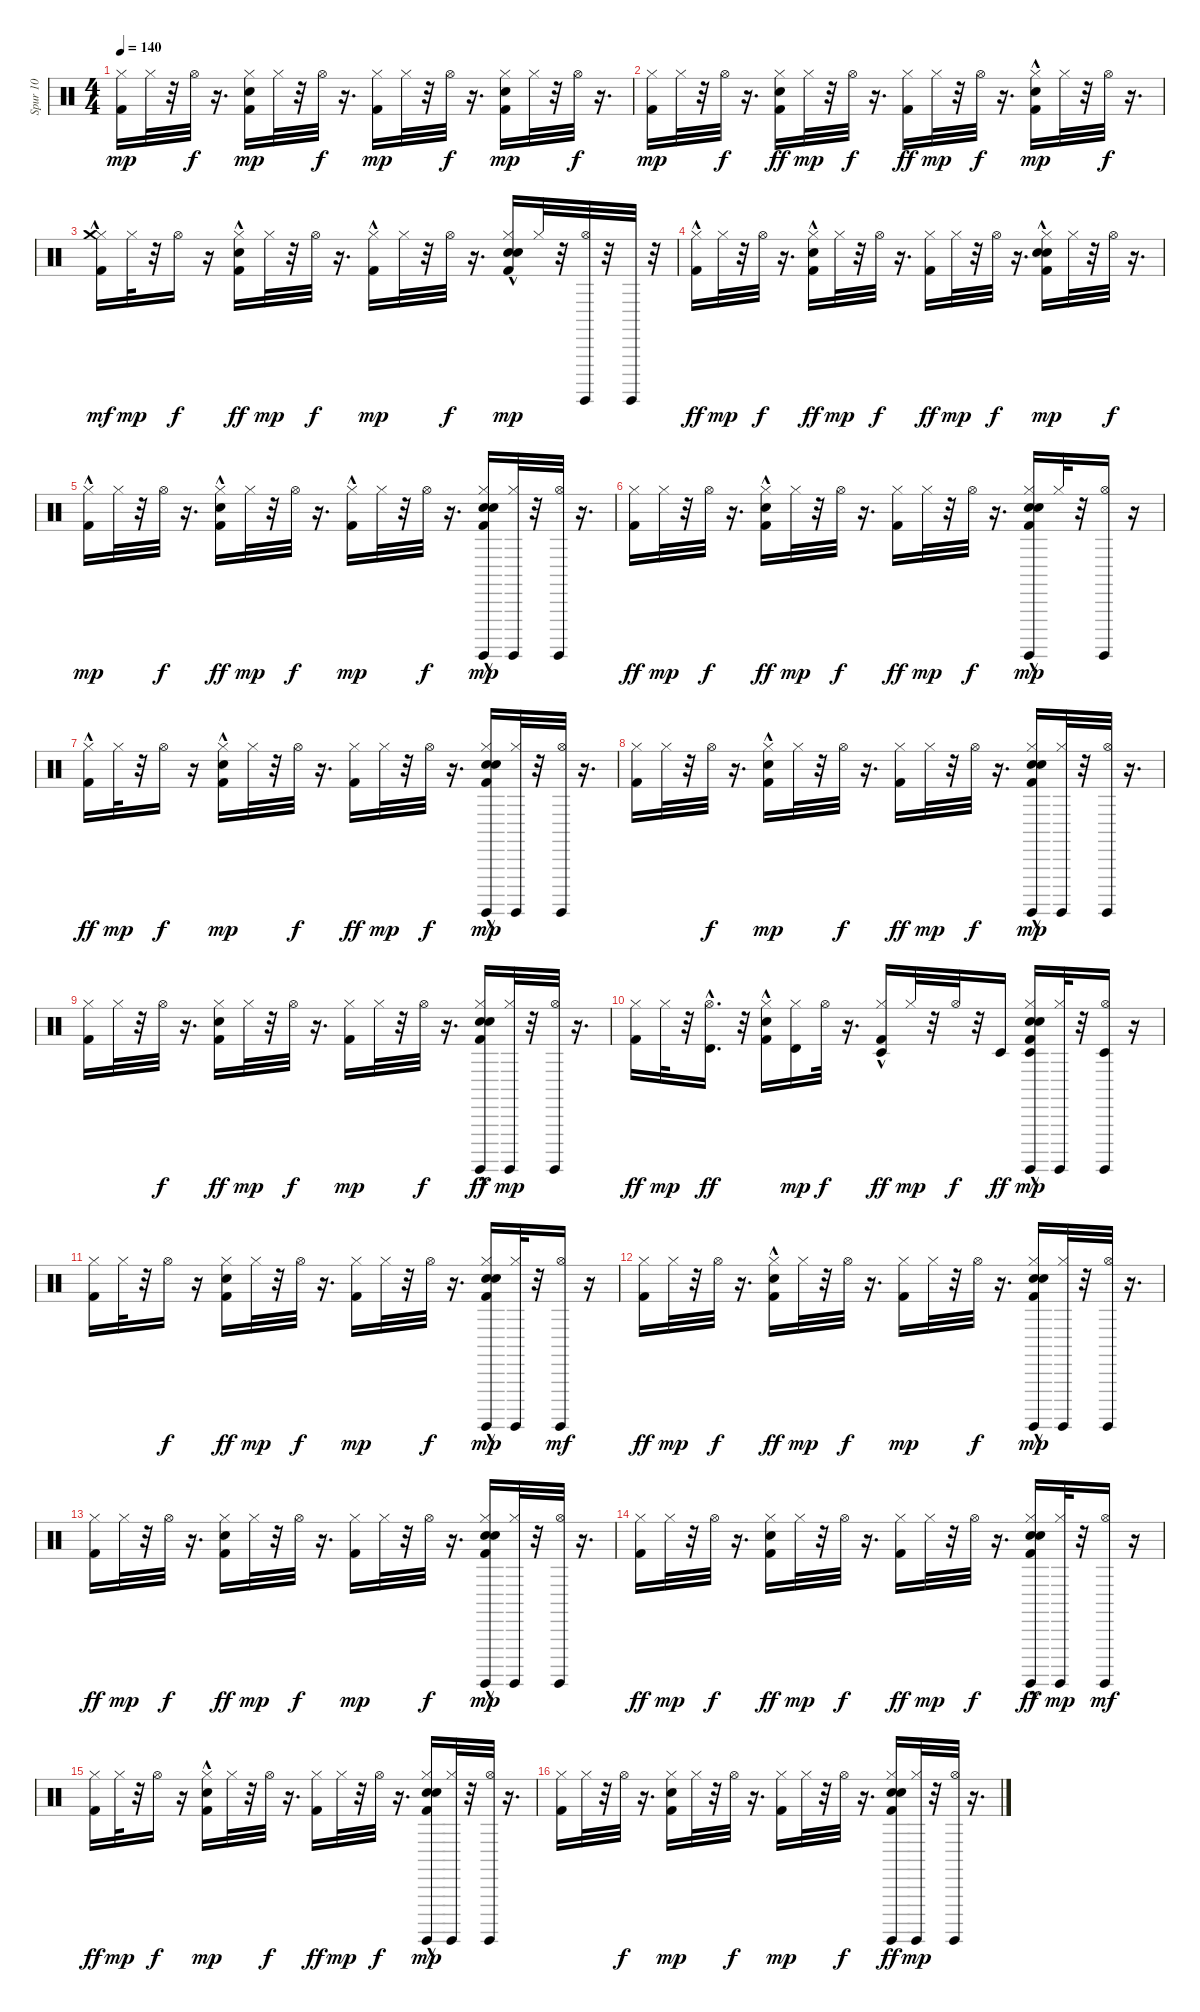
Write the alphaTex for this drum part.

\track ("Spur 10" "Spur 10") {instrument percussion}
\staff {score}
\articulation defaults
\ts (4 4)
\tempo 140
\clef neutral
\ks c
("Kick (hit) 2" "Hi-Hat (closed)").16{dy mp} "Hi-Hat (closed)".32 r.32 "Hi-Hat (open)".32{dy f} r.16{d} ("Kick (hit) 2" "Hi-Hat (closed)" "Electric Snare (hit)").16{dy mp} "Hi-Hat (closed)".32 r.32 "Hi-Hat (open)".32{dy f} r.16{d} ("Kick (hit) 2" "Hi-Hat (closed)").16{dy mp} "Hi-Hat (closed)".32 r.32 "Hi-Hat (open)".32{dy f} r.16{d} ("Kick (hit) 2" "Hi-Hat (closed)" "Electric Snare (hit)").16{dy mp} "Hi-Hat (closed)".32 r.32 "Hi-Hat (open)".32{dy f} r.16{d} |
("Kick (hit) 2" "Hi-Hat (closed)").16{dy mp} "Hi-Hat (closed)".32 r.32 "Hi-Hat (open)".32{dy f} r.16{d} ("Hi-Hat (closed)" "Electric Snare (hit)" "Kick (hit) 2").16{dy ff} "Hi-Hat (closed)".32{dy mp} r.32 "Hi-Hat (open)".32{dy f} r.16{d} ("Hi-Hat (closed)" "Kick (hit) 2").16{dy ff} "Hi-Hat (closed)".32{dy mp} r.32 "Hi-Hat (open)".32{dy f} r.16{d} ("Electric Snare (hit)"{hac} "Kick (hit) 2" "Hi-Hat (closed)").16{dy mp} "Hi-Hat (closed)".32 r.32 "Hi-Hat (open)".32{dy f} r.16{d} |
("Kick (hit) 2"{hac} "Hi-Hat (closed)" "Crash medium (hit)").16{dy mf} "Hi-Hat (closed)".32{dy mp} r.32 "Hi-Hat (open)".16{dy f} r.16 ("Electric Snare (hit)"{hac} "Hi-Hat (closed)" "Kick (hit) 2"{hac}).16{dy ff} "Hi-Hat (closed)".32{dy mp} r.32 "Hi-Hat (open)".32{dy f} r.16{d} ("Kick (hit) 2"{hac} "Hi-Hat (closed)").16{dy mp} "Hi-Hat (closed)".32 r.32 "Hi-Hat (open)".32{dy f} r.16{d} ("Kick (hit) 2"{hac} "Hi-Hat (closed)" "Electric Snare (hit)" "Snare (hit) 2").16{dy mp} "Hi-Hat (closed)".32 r.32 ("Surdo (hit)" "Hi-Hat (open)").32 r.32 "Surdo (hit)".32 r.32 |
("Hi-Hat (closed)" "Kick (hit) 2"{hac}).16{dy ff} "Hi-Hat (closed)".32{dy mp} r.32 "Hi-Hat (open)".32{dy f} r.16{d} ("Electric Snare (hit)"{hac} "Hi-Hat (closed)" "Kick (hit) 2"{hac}).16{dy ff} "Hi-Hat (closed)".32{dy mp} r.32 "Hi-Hat (open)".32{dy f} r.16{d} ("Hi-Hat (closed)" "Kick (hit) 2").16{dy ff} "Hi-Hat (closed)".32{dy mp} r.32 "Hi-Hat (open)".32{dy f} r.16{d} ("Electric Snare (hit)"{hac} "Kick (hit) 2"{hac} "Hi-Hat (closed)" "Snare (hit) 2").16{dy mp} "Hi-Hat (closed)".32 r.32 "Hi-Hat (open)".32{dy f} r.16{d} |
("Kick (hit) 2"{hac} "Hi-Hat (closed)").16{dy mp} "Hi-Hat (closed)".32 r.32 "Hi-Hat (open)".32{dy f} r.16{d} ("Hi-Hat (closed)" "Kick (hit) 2"{hac} "Electric Snare (hit)").16{dy ff} "Hi-Hat (closed)".32{dy mp} r.32 "Hi-Hat (open)".32{dy f} r.16{d} ("Kick (hit) 2"{hac} "Hi-Hat (closed)").16{dy mp} "Hi-Hat (closed)".32 r.32 "Hi-Hat (open)".32{dy f} r.16{d} ("Snare (hit) 2" "Surdo (hit)" "Kick (hit) 2" "Hi-Hat (closed)" "Electric Snare (hit)"{hac}).16{dy mp} ("Hi-Hat (closed)" "Surdo (hit)").32 r.32 ("Surdo (hit)" "Hi-Hat (open)").32 r.16{d} |
("Hi-Hat (closed)" "Kick (hit) 2").16{dy ff} "Hi-Hat (closed)".32{dy mp} r.32 "Hi-Hat (open)".32{dy f} r.16{d} ("Hi-Hat (closed)" "Kick (hit) 2" "Electric Snare (hit)"{hac}).16{dy ff} "Hi-Hat (closed)".32{dy mp} r.32 "Hi-Hat (open)".32{dy f} r.16{d} ("Hi-Hat (closed)" "Kick (hit) 2").16{dy ff} "Hi-Hat (closed)".32{dy mp} r.32 "Hi-Hat (open)".32{dy f} r.16{d} ("Hi-Hat (closed)" "Kick (hit) 2"{hac} "Surdo (hit)"{hac} "Electric Snare (hit)"{hac} "Snare (hit) 2").16{dy mp} "Hi-Hat (closed)".32 r.32 ("Hi-Hat (open)" "Surdo (hit)").16 r.16 |
("Hi-Hat (closed)" "Kick (hit) 2"{hac}).16{dy ff} "Hi-Hat (closed)".32{dy mp} r.32 "Hi-Hat (open)".16{dy f} r.16 ("Kick (hit) 2"{hac} "Hi-Hat (closed)" "Electric Snare (hit)"{hac}).16{dy mp} "Hi-Hat (closed)".32 r.32 "Hi-Hat (open)".32{dy f} r.16{d} ("Hi-Hat (closed)" "Kick (hit) 2").16{dy ff} "Hi-Hat (closed)".32{dy mp} r.32 "Hi-Hat (open)".32{dy f} r.16{d} ("Kick (hit) 2"{hac} "Hi-Hat (closed)" "Electric Snare (hit)"{hac} "Snare (hit) 2" "Surdo (hit)").16{dy mp} ("Surdo (hit)" "Hi-Hat (closed)").32 r.32 ("Hi-Hat (open)" "Surdo (hit)").32 r.16{d} |
("Kick (hit) 2" "Hi-Hat (closed)").16 "Hi-Hat (closed)".32 r.32 "Hi-Hat (open)".32{dy f} r.16{d} ("Kick (hit) 2" "Hi-Hat (closed)" "Electric Snare (hit)"{hac}).16{dy mp} "Hi-Hat (closed)".32 r.32 "Hi-Hat (open)".32{dy f} r.16{d} ("Hi-Hat (closed)" "Kick (hit) 2").16{dy ff} "Hi-Hat (closed)".32{dy mp} r.32 "Hi-Hat (open)".32{dy f} r.16{d} ("Hi-Hat (closed)" "Snare (hit) 2" "Kick (hit) 2" "Electric Snare (hit)"{hac} "Surdo (hit)").16{dy mp} ("Hi-Hat (closed)" "Surdo (hit)").32 r.32 ("Surdo (hit)" "Hi-Hat (open)").32 r.16{d} |
("Kick (hit) 2" "Hi-Hat (closed)").16 "Hi-Hat (closed)".32 r.32 "Hi-Hat (open)".32{dy f} r.16{d} ("Hi-Hat (closed)" "Electric Snare (hit)" "Kick (hit) 2").16{dy ff} "Hi-Hat (closed)".32{dy mp} r.32 "Hi-Hat (open)".32{dy f} r.16{d} ("Kick (hit) 2" "Hi-Hat (closed)").16{dy mp} "Hi-Hat (closed)".32 r.32 "Hi-Hat (open)".32{dy f} r.16{d} ("Surdo (hit)" "Hi-Hat (closed)" "Snare (hit) 2" "Electric Snare (hit)"{hac} "Kick (hit) 2").16{dy ff} ("Hi-Hat (closed)" "Surdo (hit)").32{dy mp} r.32 ("Hi-Hat (open)" "Surdo (hit)").32 r.16{d} |
("Hi-Hat (closed)" "Kick (hit) 2").16{dy ff} "Hi-Hat (closed)".32{dy mp} r.32 ("Hi-Hat (open)" "Timbale high (hit)"{hac}).16{d dy ff} r.32 ("Hi-Hat (closed)" "Kick (hit) 2" "Electric Snare (hit)"{hac}).16 ("Hi-Hat (closed)" "Timbale high (hit)").16{dy mp} "Hi-Hat (open)".32{dy f} r.16{d} ("Timbale low (hit)"{hac} "Hi-Hat (closed)" "Kick (hit) 2").16{dy ff} "Hi-Hat (closed)".32{dy mp} r.32 "Hi-Hat (open)".32{dy f} r.32 "Timbale low (hit)".16{dy ff} ("Hi-Hat (closed)" "Electric Snare (hit)"{hac} "Timbale low (hit)" "Kick (hit) 2" "Surdo (hit)" "Snare (hit) 2").16{dy mp} ("Hi-Hat (closed)" "Surdo (hit)").32 r.32 ("Timbale low (hit)" "Hi-Hat (open)" "Surdo (hit)").16 r.16 |
("Kick (hit) 2" "Hi-Hat (closed)").16 "Hi-Hat (closed)".32 r.32 "Hi-Hat (open)".16{dy f} r.16 ("Hi-Hat (closed)" "Kick (hit) 2" "Electric Snare (hit)").16{dy ff} "Hi-Hat (closed)".32{dy mp} r.32 "Hi-Hat (open)".32{dy f} r.16{d} ("Kick (hit) 2" "Hi-Hat (closed)").16{dy mp} "Hi-Hat (closed)".32 r.32 "Hi-Hat (open)".32{dy f} r.16{d} ("Hi-Hat (closed)" "Kick (hit) 2" "Surdo (hit)" "Snare (hit) 2" "Electric Snare (hit)"{hac}).16{dy mp} ("Hi-Hat (closed)" "Surdo (hit)").32 r.32 ("Hi-Hat (open)" "Surdo (hit)").16{dy mf} r.16 |
("Hi-Hat (closed)" "Kick (hit) 2").16{dy ff} "Hi-Hat (closed)".32{dy mp} r.32 "Hi-Hat (open)".32{dy f} r.16{d} ("Hi-Hat (closed)" "Electric Snare (hit)"{hac} "Kick (hit) 2").16{dy ff} "Hi-Hat (closed)".32{dy mp} r.32 "Hi-Hat (open)".32{dy f} r.16{d} ("Kick (hit) 2" "Hi-Hat (closed)").16{dy mp} "Hi-Hat (closed)".32 r.32 "Hi-Hat (open)".32{dy f} r.16{d} ("Surdo (hit)" "Snare (hit) 2"{hac} "Kick (hit) 2" "Hi-Hat (closed)" "Electric Snare (hit)"{hac}).16{dy mp} ("Hi-Hat (closed)" "Surdo (hit)").32 r.32 ("Surdo (hit)" "Hi-Hat (open)").32 r.16{d} |
("Hi-Hat (closed)" "Kick (hit) 2").16{dy ff} "Hi-Hat (closed)".32{dy mp} r.32 "Hi-Hat (open)".32{dy f} r.16{d} ("Electric Snare (hit)" "Hi-Hat (closed)" "Kick (hit) 2").16{dy ff} "Hi-Hat (closed)".32{dy mp} r.32 "Hi-Hat (open)".32{dy f} r.16{d} ("Kick (hit) 2" "Hi-Hat (closed)").16{dy mp} "Hi-Hat (closed)".32 r.32 "Hi-Hat (open)".32{dy f} r.16{d} ("Surdo (hit)" "Electric Snare (hit)"{hac} "Kick (hit) 2" "Hi-Hat (closed)" "Snare (hit) 2"{hac}).16{dy mp} ("Surdo (hit)" "Hi-Hat (closed)").32 r.32 ("Surdo (hit)" "Hi-Hat (open)").32 r.16{d} |
("Hi-Hat (closed)" "Kick (hit) 2").16{dy ff} "Hi-Hat (closed)".32{dy mp} r.32 "Hi-Hat (open)".32{dy f} r.16{d} ("Electric Snare (hit)" "Hi-Hat (closed)" "Kick (hit) 2").16{dy ff} "Hi-Hat (closed)".32{dy mp} r.32 "Hi-Hat (open)".32{dy f} r.16{d} ("Hi-Hat (closed)" "Kick (hit) 2").16{dy ff} "Hi-Hat (closed)".32{dy mp} r.32 "Hi-Hat (open)".32{dy f} r.16{d} ("Hi-Hat (closed)" "Surdo (hit)" "Kick (hit) 2" "Electric Snare (hit)"{hac} "Snare (hit) 2").16{dy ff} ("Hi-Hat (closed)" "Surdo (hit)").32{dy mp} r.32 ("Hi-Hat (open)" "Surdo (hit)").16{dy mf} r.16 |
("Hi-Hat (closed)" "Kick (hit) 2").16{dy ff} "Hi-Hat (closed)".32{dy mp} r.32 "Hi-Hat (open)".16{dy f} r.16 ("Kick (hit) 2" "Hi-Hat (closed)" "Electric Snare (hit)"{hac}).16{dy mp} "Hi-Hat (closed)".32 r.32 "Hi-Hat (open)".32{dy f} r.16{d} ("Hi-Hat (closed)" "Kick (hit) 2").16{dy ff} "Hi-Hat (closed)".32{dy mp} r.32 "Hi-Hat (open)".32{dy f} r.16{d} ("Electric Snare (hit)" "Snare (hit) 2"{hac} "Kick (hit) 2" "Hi-Hat (closed)" "Surdo (hit)").16{dy mp} ("Surdo (hit)" "Hi-Hat (closed)").32 r.32 ("Hi-Hat (open)" "Surdo (hit)").32 r.16{d} |
("Kick (hit) 2" "Hi-Hat (closed)").16 "Hi-Hat (closed)".32 r.32 "Hi-Hat (open)".32{dy f} r.16{d} ("Kick (hit) 2" "Hi-Hat (closed)" "Electric Snare (hit)").16{dy mp} "Hi-Hat (closed)".32 r.32 "Hi-Hat (open)".32{dy f} r.16{d} ("Kick (hit) 2" "Hi-Hat (closed)").16{dy mp} "Hi-Hat (closed)".32 r.32 "Hi-Hat (open)".32{dy f} r.16{d} ("Electric Snare (hit)" "Snare (hit) 2" "Surdo (hit)" "Hi-Hat (closed)" "Kick (hit) 2").16{dy ff} ("Hi-Hat (closed)" "Surdo (hit)").32{dy mp} r.32 ("Hi-Hat (open)" "Surdo (hit)").32 r.16{d}
